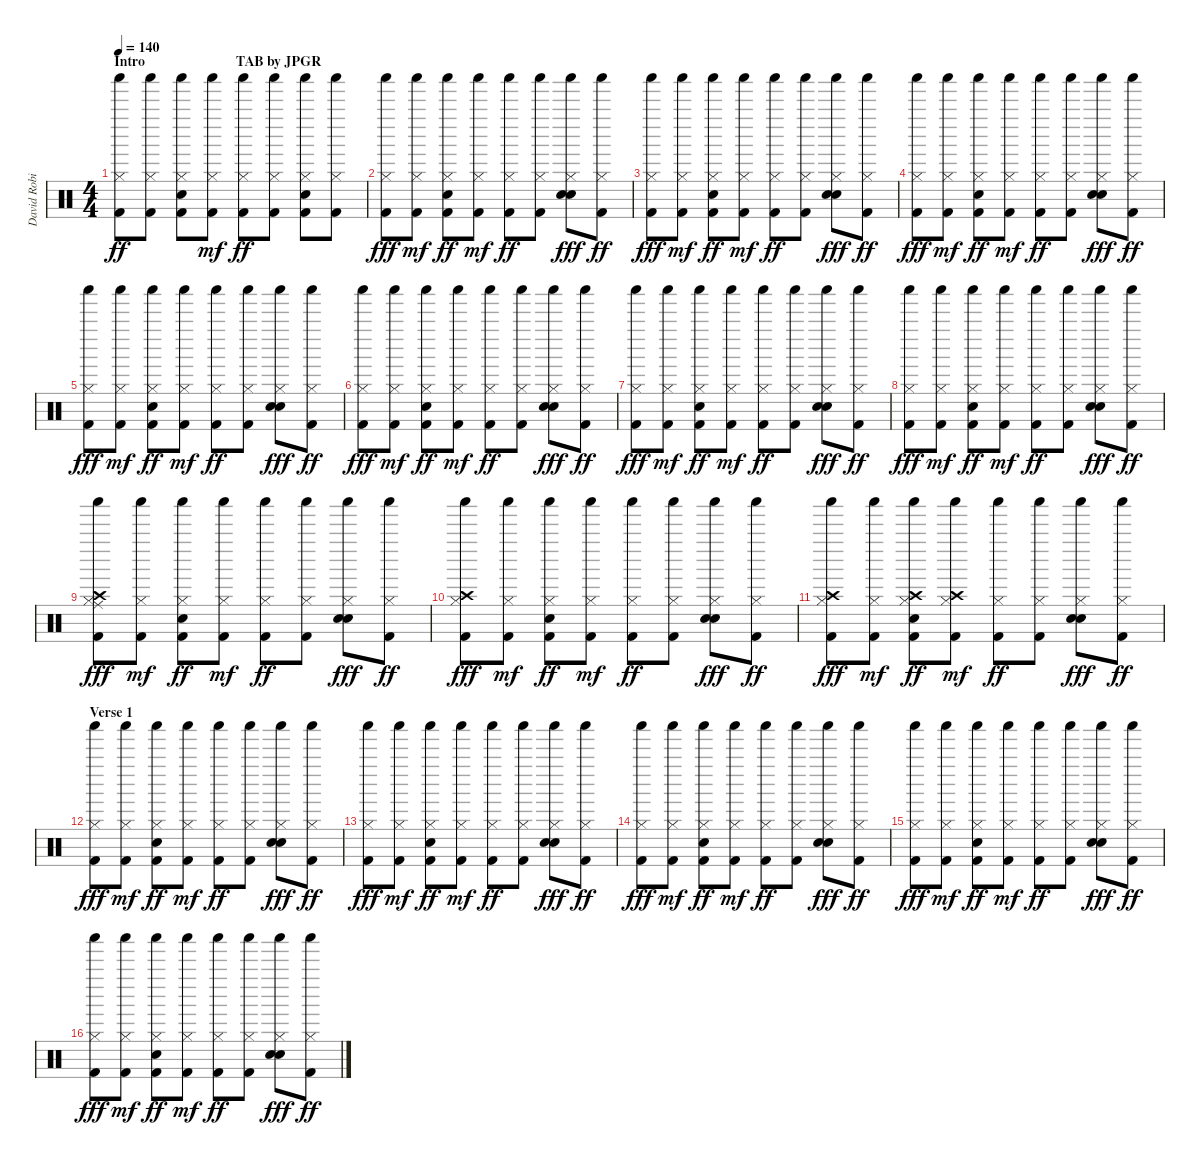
\track ("David Robinson" "David Robi") {instrument percussion}
\staff {score}
\articulation defaults
\ts (4 4)
\section ("" "Intro                          TAB by JPGR")
\tempo 140
\clef neutral
\ks c
("Shaker (hit)" "Hi-Hat (closed)" "Kick (hit) 2").8{dy ff} ("Shaker (hit)" "Hi-Hat (closed)" "Kick (hit) 2").8 ("Shaker (hit)" "Hi-Hat (closed)" "Electric Snare (hit)" "Kick (hit) 2").8 ("Shaker (hit)" "Hi-Hat (closed)" "Kick (hit) 2").8{dy mf} ("Shaker (hit)" "Hi-Hat (closed)" "Kick (hit) 2").8{dy ff} ("Shaker (hit)" "Hi-Hat (closed)" "Kick (hit) 2").8 ("Shaker (hit)" "Hi-Hat (closed)" "Electric Snare (hit)" "Kick (hit) 2").8 ("Shaker (hit)" "Hi-Hat (closed)" "Kick (hit) 2").8 |
("Shaker (hit)" "Hi-Hat (closed)" "Kick (hit) 2").8{dy fff} ("Shaker (hit)" "Hi-Hat (closed)" "Kick (hit) 2").8{dy mf} ("Shaker (hit)" "Hi-Hat (closed)" "Electric Snare (hit)" "Kick (hit) 2").8{dy ff} ("Shaker (hit)" "Hi-Hat (closed)" "Kick (hit) 2").8{dy mf} ("Shaker (hit)" "Hi-Hat (closed)" "Kick (hit) 2").8{dy ff} ("Shaker (hit)" "Hi-Hat (closed)" "Kick (hit) 2").8 ("Shaker (hit)" "Hi-Hat (closed)" "Electric Snare (hit)" "Snare (hit) 2").8{dy fff} ("Shaker (hit)" "Hi-Hat (closed)" "Kick (hit) 2").8{dy ff} |
("Shaker (hit)" "Hi-Hat (closed)" "Kick (hit) 2").8{dy fff} ("Shaker (hit)" "Hi-Hat (closed)" "Kick (hit) 2").8{dy mf} ("Shaker (hit)" "Hi-Hat (closed)" "Electric Snare (hit)" "Kick (hit) 2").8{dy ff} ("Shaker (hit)" "Hi-Hat (closed)" "Kick (hit) 2").8{dy mf} ("Shaker (hit)" "Hi-Hat (closed)" "Kick (hit) 2").8{dy ff} ("Shaker (hit)" "Hi-Hat (closed)" "Kick (hit) 2").8 ("Shaker (hit)" "Hi-Hat (closed)" "Electric Snare (hit)" "Snare (hit) 2").8{dy fff} ("Shaker (hit)" "Hi-Hat (closed)" "Kick (hit) 2").8{dy ff} |
("Shaker (hit)" "Hi-Hat (closed)" "Kick (hit) 2").8{dy fff} ("Shaker (hit)" "Hi-Hat (closed)" "Kick (hit) 2").8{dy mf} ("Shaker (hit)" "Hi-Hat (closed)" "Electric Snare (hit)" "Kick (hit) 2").8{dy ff} ("Shaker (hit)" "Hi-Hat (closed)" "Kick (hit) 2").8{dy mf} ("Shaker (hit)" "Hi-Hat (closed)" "Kick (hit) 2").8{dy ff} ("Shaker (hit)" "Hi-Hat (closed)" "Kick (hit) 2").8 ("Shaker (hit)" "Hi-Hat (closed)" "Electric Snare (hit)" "Snare (hit) 2").8{dy fff} ("Shaker (hit)" "Hi-Hat (closed)" "Kick (hit) 2").8{dy ff} |
("Shaker (hit)" "Hi-Hat (closed)" "Kick (hit) 2").8{dy fff} ("Shaker (hit)" "Hi-Hat (closed)" "Kick (hit) 2").8{dy mf} ("Shaker (hit)" "Hi-Hat (closed)" "Electric Snare (hit)" "Kick (hit) 2").8{dy ff} ("Shaker (hit)" "Hi-Hat (closed)" "Kick (hit) 2").8{dy mf} ("Shaker (hit)" "Hi-Hat (closed)" "Kick (hit) 2").8{dy ff} ("Shaker (hit)" "Hi-Hat (closed)" "Kick (hit) 2").8 ("Shaker (hit)" "Hi-Hat (closed)" "Electric Snare (hit)" "Snare (hit) 2").8{dy fff} ("Shaker (hit)" "Hi-Hat (closed)" "Kick (hit) 2").8{dy ff} |
("Shaker (hit)" "Hi-Hat (closed)" "Kick (hit) 2").8{dy fff} ("Shaker (hit)" "Hi-Hat (closed)" "Kick (hit) 2").8{dy mf} ("Shaker (hit)" "Hi-Hat (closed)" "Electric Snare (hit)" "Kick (hit) 2").8{dy ff} ("Shaker (hit)" "Hi-Hat (closed)" "Kick (hit) 2").8{dy mf} ("Shaker (hit)" "Hi-Hat (closed)" "Kick (hit) 2").8{dy ff} ("Shaker (hit)" "Hi-Hat (closed)" "Kick (hit) 2").8 ("Shaker (hit)" "Hi-Hat (closed)" "Electric Snare (hit)" "Snare (hit) 2").8{dy fff} ("Shaker (hit)" "Hi-Hat (closed)" "Kick (hit) 2").8{dy ff} |
("Shaker (hit)" "Hi-Hat (closed)" "Kick (hit) 2").8{dy fff} ("Shaker (hit)" "Hi-Hat (closed)" "Kick (hit) 2").8{dy mf} ("Shaker (hit)" "Hi-Hat (closed)" "Electric Snare (hit)" "Kick (hit) 2").8{dy ff} ("Shaker (hit)" "Hi-Hat (closed)" "Kick (hit) 2").8{dy mf} ("Shaker (hit)" "Hi-Hat (closed)" "Kick (hit) 2").8{dy ff} ("Shaker (hit)" "Hi-Hat (closed)" "Kick (hit) 2").8 ("Shaker (hit)" "Hi-Hat (closed)" "Electric Snare (hit)" "Snare (hit) 2").8{dy fff} ("Shaker (hit)" "Hi-Hat (closed)" "Kick (hit) 2").8{dy ff} |
("Shaker (hit)" "Hi-Hat (closed)" "Kick (hit) 2").8{dy fff} ("Shaker (hit)" "Hi-Hat (closed)" "Kick (hit) 2").8{dy mf} ("Shaker (hit)" "Hi-Hat (closed)" "Electric Snare (hit)" "Kick (hit) 2").8{dy ff} ("Shaker (hit)" "Hi-Hat (closed)" "Kick (hit) 2").8{dy mf} ("Shaker (hit)" "Hi-Hat (closed)" "Kick (hit) 2").8{dy ff} ("Shaker (hit)" "Hi-Hat (closed)" "Kick (hit) 2").8 ("Shaker (hit)" "Hi-Hat (closed)" "Electric Snare (hit)" "Snare (hit) 2").8{dy fff} ("Shaker (hit)" "Hi-Hat (closed)" "Kick (hit) 2").8{dy ff} |
("Shaker (hit)" "Crash high (hit)" "Hi-Hat (closed)" "Ride (middle)" "Kick (hit) 2").8{dy fff} ("Shaker (hit)" "Hi-Hat (closed)" "Kick (hit) 2").8{dy mf} ("Shaker (hit)" "Hi-Hat (closed)" "Electric Snare (hit)" "Kick (hit) 2").8{dy ff} ("Shaker (hit)" "Hi-Hat (closed)" "Kick (hit) 2").8{dy mf} ("Shaker (hit)" "Hi-Hat (closed)" "Kick (hit) 2").8{dy ff} ("Shaker (hit)" "Hi-Hat (closed)" "Kick (hit) 2").8 ("Shaker (hit)" "Hi-Hat (closed)" "Electric Snare (hit)" "Snare (hit) 2").8{dy fff} ("Shaker (hit)" "Hi-Hat (closed)" "Kick (hit) 2").8{dy ff} |
("Shaker (hit)" "Crash high (hit)" "Hi-Hat (closed)" "Kick (hit) 2").8{dy fff} ("Shaker (hit)" "Hi-Hat (closed)" "Kick (hit) 2").8{dy mf} ("Shaker (hit)" "Hi-Hat (closed)" "Electric Snare (hit)" "Kick (hit) 2").8{dy ff} ("Shaker (hit)" "Hi-Hat (closed)" "Kick (hit) 2").8{dy mf} ("Shaker (hit)" "Hi-Hat (closed)" "Kick (hit) 2").8{dy ff} ("Shaker (hit)" "Hi-Hat (closed)" "Kick (hit) 2").8 ("Shaker (hit)" "Hi-Hat (closed)" "Electric Snare (hit)" "Snare (hit) 2").8{dy fff} ("Shaker (hit)" "Hi-Hat (closed)" "Kick (hit) 2").8{dy ff} |
("Shaker (hit)" "Crash high (hit)" "Hi-Hat (closed)" "Kick (hit) 2").8{dy fff} ("Shaker (hit)" "Hi-Hat (closed)" "Kick (hit) 2").8{dy mf} ("Shaker (hit)" "Crash high (hit)" "Hi-Hat (closed)" "Electric Snare (hit)" "Kick (hit) 2").8{dy ff} ("Shaker (hit)" "Crash high (hit)" "Hi-Hat (closed)" "Kick (hit) 2").8{dy mf} ("Shaker (hit)" "Hi-Hat (closed)" "Kick (hit) 2").8{dy ff} ("Shaker (hit)" "Hi-Hat (closed)" "Kick (hit) 2").8 ("Shaker (hit)" "Hi-Hat (closed)" "Electric Snare (hit)" "Snare (hit) 2").8{dy fff} ("Shaker (hit)" "Hi-Hat (closed)" "Kick (hit) 2").8{dy ff} |
\section ("" "Verse 1")
("Shaker (hit)" "Hi-Hat (closed)" "Kick (hit) 2").8{dy fff} ("Shaker (hit)" "Hi-Hat (closed)" "Kick (hit) 2").8{dy mf} ("Shaker (hit)" "Hi-Hat (closed)" "Electric Snare (hit)" "Kick (hit) 2").8{dy ff} ("Shaker (hit)" "Hi-Hat (closed)" "Kick (hit) 2").8{dy mf} ("Shaker (hit)" "Hi-Hat (closed)" "Kick (hit) 2").8{dy ff} ("Shaker (hit)" "Hi-Hat (closed)" "Kick (hit) 2").8 ("Shaker (hit)" "Hi-Hat (closed)" "Electric Snare (hit)" "Snare (hit) 2").8{dy fff} ("Shaker (hit)" "Hi-Hat (closed)" "Kick (hit) 2").8{dy ff} |
("Shaker (hit)" "Hi-Hat (closed)" "Kick (hit) 2").8{dy fff} ("Shaker (hit)" "Hi-Hat (closed)" "Kick (hit) 2").8{dy mf} ("Shaker (hit)" "Hi-Hat (closed)" "Electric Snare (hit)" "Kick (hit) 2").8{dy ff} ("Shaker (hit)" "Hi-Hat (closed)" "Kick (hit) 2").8{dy mf} ("Shaker (hit)" "Hi-Hat (closed)" "Kick (hit) 2").8{dy ff} ("Shaker (hit)" "Hi-Hat (closed)" "Kick (hit) 2").8 ("Shaker (hit)" "Hi-Hat (closed)" "Electric Snare (hit)" "Snare (hit) 2").8{dy fff} ("Shaker (hit)" "Hi-Hat (closed)" "Kick (hit) 2").8{dy ff} |
("Shaker (hit)" "Hi-Hat (closed)" "Kick (hit) 2").8{dy fff} ("Shaker (hit)" "Hi-Hat (closed)" "Kick (hit) 2").8{dy mf} ("Shaker (hit)" "Hi-Hat (closed)" "Electric Snare (hit)" "Kick (hit) 2").8{dy ff} ("Shaker (hit)" "Hi-Hat (closed)" "Kick (hit) 2").8{dy mf} ("Shaker (hit)" "Hi-Hat (closed)" "Kick (hit) 2").8{dy ff} ("Shaker (hit)" "Hi-Hat (closed)" "Kick (hit) 2").8 ("Shaker (hit)" "Hi-Hat (closed)" "Electric Snare (hit)" "Snare (hit) 2").8{dy fff} ("Shaker (hit)" "Hi-Hat (closed)" "Kick (hit) 2").8{dy ff} |
("Shaker (hit)" "Hi-Hat (closed)" "Kick (hit) 2").8{dy fff} ("Shaker (hit)" "Hi-Hat (closed)" "Kick (hit) 2").8{dy mf} ("Shaker (hit)" "Hi-Hat (closed)" "Electric Snare (hit)" "Kick (hit) 2").8{dy ff} ("Shaker (hit)" "Hi-Hat (closed)" "Kick (hit) 2").8{dy mf} ("Shaker (hit)" "Hi-Hat (closed)" "Kick (hit) 2").8{dy ff} ("Shaker (hit)" "Hi-Hat (closed)" "Kick (hit) 2").8 ("Shaker (hit)" "Hi-Hat (closed)" "Electric Snare (hit)" "Snare (hit) 2").8{dy fff} ("Shaker (hit)" "Hi-Hat (closed)" "Kick (hit) 2").8{dy ff} |
("Shaker (hit)" "Hi-Hat (closed)" "Kick (hit) 2").8{dy fff} ("Shaker (hit)" "Hi-Hat (closed)" "Kick (hit) 2").8{dy mf} ("Shaker (hit)" "Hi-Hat (closed)" "Electric Snare (hit)" "Kick (hit) 2").8{dy ff} ("Shaker (hit)" "Hi-Hat (closed)" "Kick (hit) 2").8{dy mf} ("Shaker (hit)" "Hi-Hat (closed)" "Kick (hit) 2").8{dy ff} ("Shaker (hit)" "Hi-Hat (closed)" "Kick (hit) 2").8 ("Shaker (hit)" "Hi-Hat (closed)" "Electric Snare (hit)" "Snare (hit) 2").8{dy fff} ("Shaker (hit)" "Hi-Hat (closed)" "Kick (hit) 2").8{dy ff}
